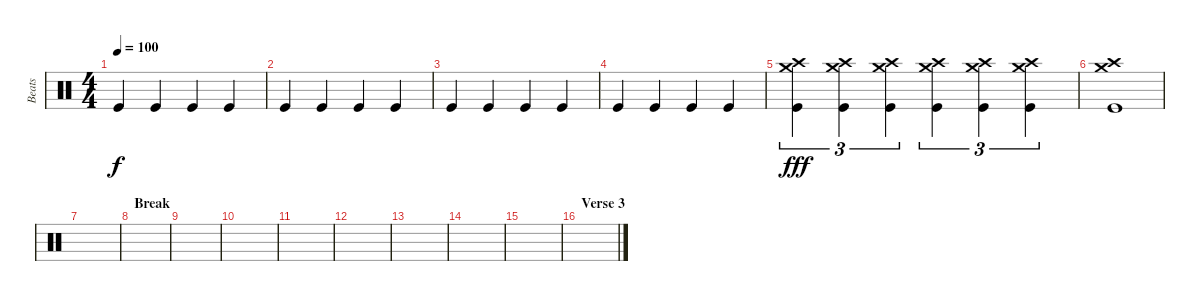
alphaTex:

\track ("Beats" "Beats") {instrument percussion}
\staff {score}
\articulation defaults
\ts (4 4)
\tempo 100
\clef neutral
\ks c "Kick (hit)".4{dy f} "Kick (hit)".4 "Kick (hit)".4 "Kick (hit)".4
|
"Kick (hit)".4 "Kick (hit)".4 "Kick (hit)".4 "Kick (hit)".4 |
"Kick (hit)".4 "Kick (hit)".4 "Kick (hit)".4 "Kick (hit)".4 |
"Kick (hit)".4 "Kick (hit)".4 "Kick (hit)".4 "Kick (hit)".4 |
("Crash medium (hit)" "Crash high (hit)" "Kick (hit)").4{tu (3 2) dy fff} ("Crash medium (hit)" "Crash high (hit)" "Kick (hit)").4{tu (3 2)} ("Crash medium (hit)" "Crash high (hit)" "Kick (hit)").4{tu (3 2)} ("Crash medium (hit)" "Crash high (hit)" "Kick (hit)").4{tu (3 2)} ("Crash medium (hit)" "Crash high (hit)" "Kick (hit)").4{tu (3 2)} ("Crash medium (hit)" "Crash high (hit)" "Kick (hit)").4{tu (3 2)} |
("Crash medium (hit)" "Crash high (hit)" "Kick (hit)").1 |
|
\section ("" "Break")
|
|
|
|
|
|
|
|
\section ("" "Verse 3")
